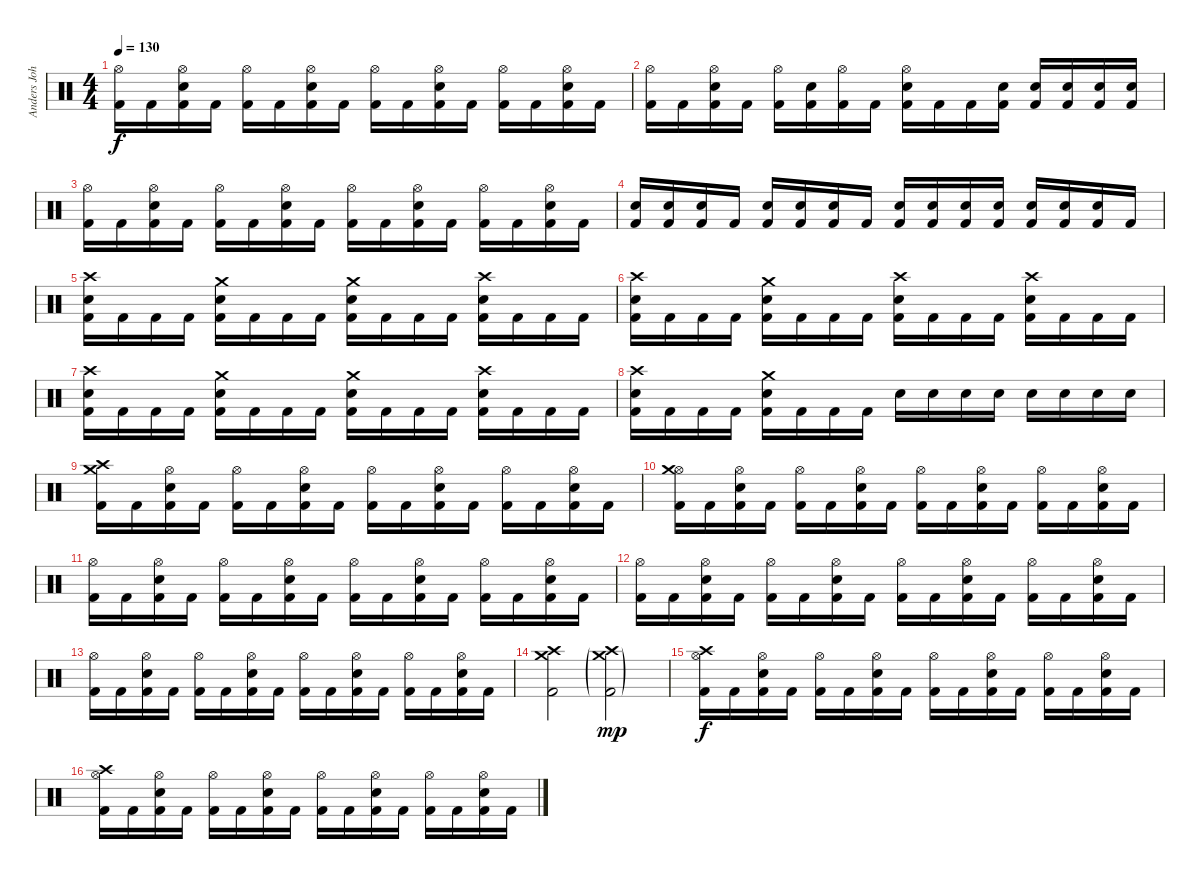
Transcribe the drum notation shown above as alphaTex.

\track ("Anders Johansson - Drums" "Anders Joh") {instrument percussion}
\staff {score}
\articulation defaults
\ts (4 4)
\tempo 130
\clef neutral
\ks c
("Hi-Hat (open)" "Kick (hit) 2").16{dy f} "Kick (hit) 2".16 ("Hi-Hat (open)" "Kick (hit) 2" "Electric Snare (hit)").16 "Kick (hit) 2".16 ("Hi-Hat (open)" "Kick (hit) 2").16 "Kick (hit) 2".16 ("Hi-Hat (open)" "Kick (hit) 2" "Electric Snare (hit)").16 "Kick (hit) 2".16 ("Hi-Hat (open)" "Kick (hit) 2").16 "Kick (hit) 2".16 ("Hi-Hat (open)" "Kick (hit) 2" "Electric Snare (hit)").16 "Kick (hit) 2".16 ("Hi-Hat (open)" "Kick (hit) 2").16 "Kick (hit) 2".16 ("Hi-Hat (open)" "Kick (hit) 2" "Electric Snare (hit)").16 "Kick (hit) 2".16 |
("Hi-Hat (open)" "Kick (hit) 2").16 "Kick (hit) 2".16 ("Hi-Hat (open)" "Kick (hit) 2" "Electric Snare (hit)").16 "Kick (hit) 2".16 ("Hi-Hat (open)" "Kick (hit) 2").16 ("Electric Snare (hit)" "Kick (hit) 2").16 ("Hi-Hat (open)" "Kick (hit) 2").16 "Kick (hit) 2".16 ("Electric Snare (hit)" "Kick (hit) 2" "Hi-Hat (open)").16 "Kick (hit) 2".16 "Kick (hit) 2".16 ("Electric Snare (hit)" "Kick (hit) 2").16 ("Electric Snare (hit)" "Kick (hit) 2").16 ("Electric Snare (hit)" "Kick (hit) 2").16 ("Electric Snare (hit)" "Kick (hit) 2").16 ("Electric Snare (hit)" "Kick (hit) 2").16 |
("Hi-Hat (open)" "Kick (hit) 2").16 "Kick (hit) 2".16 ("Hi-Hat (open)" "Kick (hit) 2" "Electric Snare (hit)").16 "Kick (hit) 2".16 ("Hi-Hat (open)" "Kick (hit) 2").16 "Kick (hit) 2".16 ("Hi-Hat (open)" "Kick (hit) 2" "Electric Snare (hit)").16 "Kick (hit) 2".16 ("Hi-Hat (open)" "Kick (hit) 2").16 "Kick (hit) 2".16 ("Hi-Hat (open)" "Kick (hit) 2" "Electric Snare (hit)").16 "Kick (hit) 2".16 ("Hi-Hat (open)" "Kick (hit) 2").16 "Kick (hit) 2".16 ("Hi-Hat (open)" "Kick (hit) 2" "Electric Snare (hit)").16 "Kick (hit) 2".16 |
("Electric Snare (hit)" "Kick (hit) 2").16 ("Electric Snare (hit)" "Kick (hit) 2").16 ("Electric Snare (hit)" "Kick (hit) 2").16 "Kick (hit) 2".16 ("Electric Snare (hit)" "Kick (hit) 2").16 ("Electric Snare (hit)" "Kick (hit) 2").16 ("Electric Snare (hit)" "Kick (hit) 2").16 "Kick (hit) 2".16 ("Electric Snare (hit)" "Kick (hit) 2").16 ("Electric Snare (hit)" "Kick (hit) 2").16 ("Electric Snare (hit)" "Kick (hit) 2").16 ("Electric Snare (hit)" "Kick (hit) 2").16 ("Electric Snare (hit)" "Kick (hit) 2").16 ("Electric Snare (hit)" "Kick (hit) 2").16 ("Electric Snare (hit)" "Kick (hit) 2").16 "Kick (hit) 2".16 |
("Crash high (hit)" "Kick (hit) 2" "Electric Snare (hit)").16 "Kick (hit) 2".16 "Kick (hit) 2".16 "Kick (hit) 2".16 ("Crash medium (hit)" "Kick (hit) 2" "Electric Snare (hit)").16 "Kick (hit) 2".16 "Kick (hit) 2".16 "Kick (hit) 2".16 ("Crash medium (hit)" "Kick (hit) 2" "Electric Snare (hit)").16 "Kick (hit) 2".16 "Kick (hit) 2".16 "Kick (hit) 2".16 ("Crash high (hit)" "Kick (hit) 2" "Electric Snare (hit)").16 "Kick (hit) 2".16 "Kick (hit) 2".16 "Kick (hit) 2".16 |
("Crash high (hit)" "Kick (hit) 2" "Electric Snare (hit)").16 "Kick (hit) 2".16 "Kick (hit) 2".16 "Kick (hit) 2".16 ("Crash medium (hit)" "Kick (hit) 2" "Electric Snare (hit)").16 "Kick (hit) 2".16 "Kick (hit) 2".16 "Kick (hit) 2".16 ("Crash high (hit)" "Kick (hit) 2" "Electric Snare (hit)").16 "Kick (hit) 2".16 "Kick (hit) 2".16 "Kick (hit) 2".16 ("Crash high (hit)" "Kick (hit) 2" "Electric Snare (hit)").16 "Kick (hit) 2".16 "Kick (hit) 2".16 "Kick (hit) 2".16 |
("Crash high (hit)" "Kick (hit) 2" "Electric Snare (hit)").16 "Kick (hit) 2".16 "Kick (hit) 2".16 "Kick (hit) 2".16 ("Crash medium (hit)" "Kick (hit) 2" "Electric Snare (hit)").16 "Kick (hit) 2".16 "Kick (hit) 2".16 "Kick (hit) 2".16 ("Crash medium (hit)" "Kick (hit) 2" "Electric Snare (hit)").16 "Kick (hit) 2".16 "Kick (hit) 2".16 "Kick (hit) 2".16 ("Crash high (hit)" "Kick (hit) 2" "Electric Snare (hit)").16 "Kick (hit) 2".16 "Kick (hit) 2".16 "Kick (hit) 2".16 |
("Crash high (hit)" "Kick (hit) 2" "Electric Snare (hit)").16 "Kick (hit) 2".16 "Kick (hit) 2".16 "Kick (hit) 2".16 ("Crash medium (hit)" "Kick (hit) 2" "Electric Snare (hit)").16 "Kick (hit) 2".16 "Kick (hit) 2".16 "Kick (hit) 2".16 "Electric Snare (hit)".16 "Electric Snare (hit)".16 "Electric Snare (hit)".16 "Electric Snare (hit)".16 "Electric Snare (hit)".16 "Electric Snare (hit)".16 "Electric Snare (hit)".16 "Electric Snare (hit)".16 |
("Crash high (hit)" "Kick (hit) 2" "Crash medium (hit)").16 "Kick (hit) 2".16 ("Hi-Hat (open)" "Kick (hit) 2" "Electric Snare (hit)").16 "Kick (hit) 2".16 ("Hi-Hat (open)" "Kick (hit) 2").16 "Kick (hit) 2".16 ("Hi-Hat (open)" "Kick (hit) 2" "Electric Snare (hit)").16 "Kick (hit) 2".16 ("Hi-Hat (open)" "Kick (hit) 2").16 "Kick (hit) 2".16 ("Hi-Hat (open)" "Kick (hit) 2" "Electric Snare (hit)").16 "Kick (hit) 2".16 ("Hi-Hat (open)" "Kick (hit) 2").16 "Kick (hit) 2".16 ("Hi-Hat (open)" "Kick (hit) 2" "Electric Snare (hit)").16 "Kick (hit) 2".16 |
("Hi-Hat (open)" "Kick (hit) 2" "Crash medium (hit)").16 "Kick (hit) 2".16 ("Hi-Hat (open)" "Kick (hit) 2" "Electric Snare (hit)").16 "Kick (hit) 2".16 ("Hi-Hat (open)" "Kick (hit) 2").16 "Kick (hit) 2".16 ("Hi-Hat (open)" "Kick (hit) 2" "Electric Snare (hit)").16 "Kick (hit) 2".16 ("Hi-Hat (open)" "Kick (hit) 2").16 "Kick (hit) 2".16 ("Hi-Hat (open)" "Kick (hit) 2" "Electric Snare (hit)").16 "Kick (hit) 2".16 ("Hi-Hat (open)" "Kick (hit) 2").16 "Kick (hit) 2".16 ("Hi-Hat (open)" "Kick (hit) 2" "Electric Snare (hit)").16 "Kick (hit) 2".16 |
("Hi-Hat (open)" "Kick (hit) 2").16 "Kick (hit) 2".16 ("Hi-Hat (open)" "Kick (hit) 2" "Electric Snare (hit)").16 "Kick (hit) 2".16 ("Hi-Hat (open)" "Kick (hit) 2").16 "Kick (hit) 2".16 ("Hi-Hat (open)" "Kick (hit) 2" "Electric Snare (hit)").16 "Kick (hit) 2".16 ("Hi-Hat (open)" "Kick (hit) 2").16 "Kick (hit) 2".16 ("Hi-Hat (open)" "Kick (hit) 2" "Electric Snare (hit)").16 "Kick (hit) 2".16 ("Hi-Hat (open)" "Kick (hit) 2").16 "Kick (hit) 2".16 ("Hi-Hat (open)" "Kick (hit) 2" "Electric Snare (hit)").16 "Kick (hit) 2".16 |
("Hi-Hat (open)" "Kick (hit) 2").16 "Kick (hit) 2".16 ("Hi-Hat (open)" "Kick (hit) 2" "Electric Snare (hit)").16 "Kick (hit) 2".16 ("Hi-Hat (open)" "Kick (hit) 2").16 "Kick (hit) 2".16 ("Hi-Hat (open)" "Kick (hit) 2" "Electric Snare (hit)").16 "Kick (hit) 2".16 ("Hi-Hat (open)" "Kick (hit) 2").16 "Kick (hit) 2".16 ("Hi-Hat (open)" "Kick (hit) 2" "Electric Snare (hit)").16 "Kick (hit) 2".16 ("Hi-Hat (open)" "Kick (hit) 2").16 "Kick (hit) 2".16 ("Hi-Hat (open)" "Kick (hit) 2" "Electric Snare (hit)").16 "Kick (hit) 2".16 |
("Hi-Hat (open)" "Kick (hit) 2").16 "Kick (hit) 2".16 ("Hi-Hat (open)" "Kick (hit) 2" "Electric Snare (hit)").16 "Kick (hit) 2".16 ("Hi-Hat (open)" "Kick (hit) 2").16 "Kick (hit) 2".16 ("Hi-Hat (open)" "Kick (hit) 2" "Electric Snare (hit)").16 "Kick (hit) 2".16 ("Hi-Hat (open)" "Kick (hit) 2").16 "Kick (hit) 2".16 ("Hi-Hat (open)" "Kick (hit) 2" "Electric Snare (hit)").16 "Kick (hit) 2".16 ("Hi-Hat (open)" "Kick (hit) 2").16 "Kick (hit) 2".16 ("Hi-Hat (open)" "Kick (hit) 2" "Electric Snare (hit)").16 "Kick (hit) 2".16 |
("Crash high (hit)" "Kick (hit) 2" "Crash medium (hit)").2 ("Crash high (hit)"{g} "Kick (hit) 2"{g} "Crash medium (hit)"{g}).2{dy mp} |
("Hi-Hat (open)" "Kick (hit) 2" "Crash high (hit)").16{dy f} "Kick (hit) 2".16 ("Hi-Hat (open)" "Kick (hit) 2" "Electric Snare (hit)").16 "Kick (hit) 2".16 ("Hi-Hat (open)" "Kick (hit) 2").16 "Kick (hit) 2".16 ("Hi-Hat (open)" "Kick (hit) 2" "Electric Snare (hit)").16 "Kick (hit) 2".16 ("Hi-Hat (open)" "Kick (hit) 2").16 "Kick (hit) 2".16 ("Hi-Hat (open)" "Kick (hit) 2" "Electric Snare (hit)").16 "Kick (hit) 2".16 ("Hi-Hat (open)" "Kick (hit) 2").16 "Kick (hit) 2".16 ("Hi-Hat (open)" "Kick (hit) 2" "Electric Snare (hit)").16 "Kick (hit) 2".16 |
("Hi-Hat (open)" "Kick (hit) 2" "Crash high (hit)").16 "Kick (hit) 2".16 ("Hi-Hat (open)" "Kick (hit) 2" "Electric Snare (hit)").16 "Kick (hit) 2".16 ("Hi-Hat (open)" "Kick (hit) 2").16 "Kick (hit) 2".16 ("Hi-Hat (open)" "Kick (hit) 2" "Electric Snare (hit)").16 "Kick (hit) 2".16 ("Hi-Hat (open)" "Kick (hit) 2").16 "Kick (hit) 2".16 ("Hi-Hat (open)" "Kick (hit) 2" "Electric Snare (hit)").16 "Kick (hit) 2".16 ("Hi-Hat (open)" "Kick (hit) 2").16 "Kick (hit) 2".16 ("Hi-Hat (open)" "Kick (hit) 2" "Electric Snare (hit)").16 "Kick (hit) 2".16
